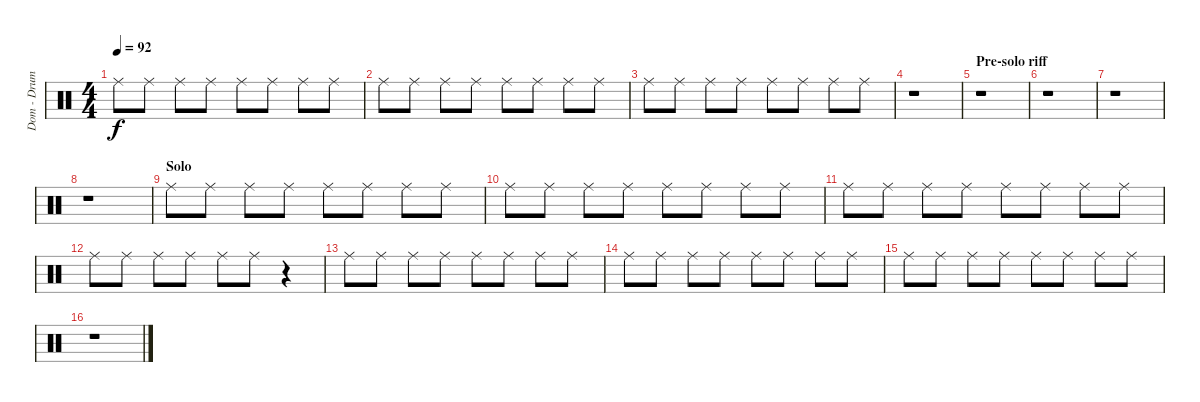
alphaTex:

\track ("Dom - Drums 2" "Dom - Drum") {instrument percussion}
\staff {score}
\articulation defaults
\ts (4 4)
\tempo 92
\clef neutral
\ks c "Ride (middle)".8{dy f} "Ride (middle)".8 "Ride (middle)".8 "Ride (middle)".8 "Ride (middle)".8 "Ride (middle)".8 "Ride (middle)".8 "Ride (middle)".8
|
"Ride (middle)".8 "Ride (middle)".8 "Ride (middle)".8 "Ride (middle)".8 "Ride (middle)".8 "Ride (middle)".8 "Ride (middle)".8 "Ride (middle)".8 |
"Ride (middle)".8 "Ride (middle)".8 "Ride (middle)".8 "Ride (middle)".8 "Ride (middle)".8 "Ride (middle)".8 "Ride (middle)".8 "Ride (middle)".8 |
r.1 |
\section ("" "Pre-solo riff")
r.1 |
r.1 |
r.1 |
r.1 |
\section ("" "Solo")
"Ride (middle)".8 "Ride (middle)".8 "Ride (middle)".8 "Ride (middle)".8 "Ride (middle)".8 "Ride (middle)".8 "Ride (middle)".8 "Ride (middle)".8 |
"Ride (middle)".8 "Ride (middle)".8 "Ride (middle)".8 "Ride (middle)".8 "Ride (middle)".8 "Ride (middle)".8 "Ride (middle)".8 "Ride (middle)".8 |
"Ride (middle)".8 "Ride (middle)".8 "Ride (middle)".8 "Ride (middle)".8 "Ride (middle)".8 "Ride (middle)".8 "Ride (middle)".8 "Ride (middle)".8 |
"Ride (middle)".8 "Ride (middle)".8 "Ride (middle)".8 "Ride (middle)".8 "Ride (middle)".8 "Ride (middle)".8 r.4 |
"Ride (middle)".8 "Ride (middle)".8 "Ride (middle)".8 "Ride (middle)".8 "Ride (middle)".8 "Ride (middle)".8 "Ride (middle)".8 "Ride (middle)".8 |
"Ride (middle)".8 "Ride (middle)".8 "Ride (middle)".8 "Ride (middle)".8 "Ride (middle)".8 "Ride (middle)".8 "Ride (middle)".8 "Ride (middle)".8 |
"Ride (middle)".8 "Ride (middle)".8 "Ride (middle)".8 "Ride (middle)".8 "Ride (middle)".8 "Ride (middle)".8 "Ride (middle)".8 "Ride (middle)".8 |
r.1
